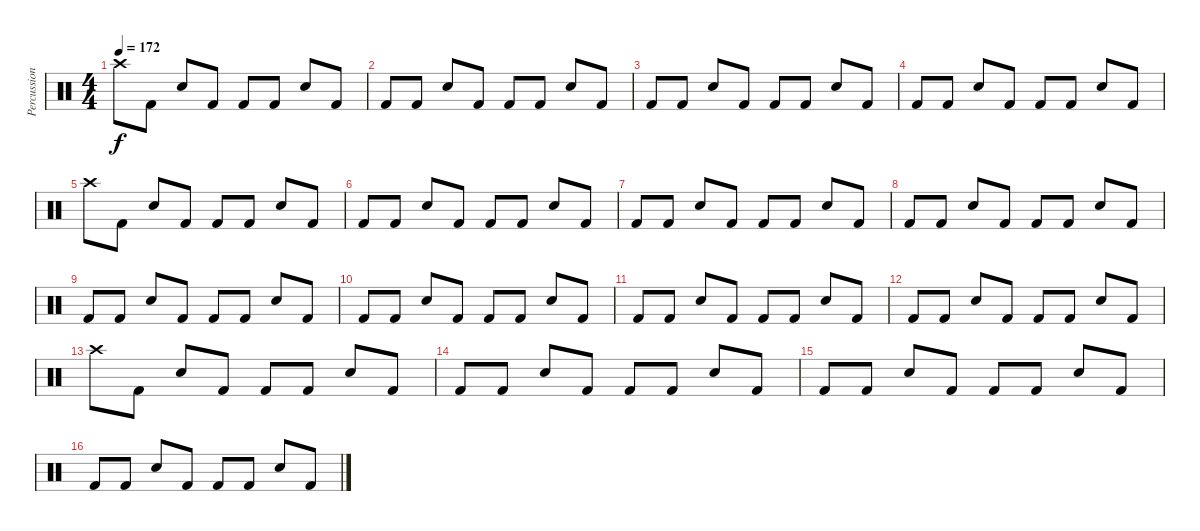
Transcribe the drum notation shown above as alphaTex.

\track ("Percussion" "Percussion") {instrument percussion}
\staff {score}
\articulation defaults
\ts (4 4)
\tempo 172
\clef neutral
\ks c "Crash high (hit)".8{dy f} "Kick (hit) 2".8 "Snare (hit) 2".8 "Kick (hit) 2".8 "Kick (hit) 2".8 "Kick (hit) 2".8 "Snare (hit) 2".8 "Kick (hit) 2".8
|
"Kick (hit) 2".8 "Kick (hit) 2".8 "Snare (hit) 2".8 "Kick (hit) 2".8 "Kick (hit) 2".8 "Kick (hit) 2".8 "Snare (hit) 2".8 "Kick (hit) 2".8 |
"Kick (hit) 2".8 "Kick (hit) 2".8 "Snare (hit) 2".8 "Kick (hit) 2".8 "Kick (hit) 2".8 "Kick (hit) 2".8 "Snare (hit) 2".8 "Kick (hit) 2".8 |
"Kick (hit) 2".8 "Kick (hit) 2".8 "Snare (hit) 2".8 "Kick (hit) 2".8 "Kick (hit) 2".8 "Kick (hit) 2".8 "Snare (hit) 2".8 "Kick (hit) 2".8 |
"Crash high (hit)".8 "Kick (hit) 2".8 "Snare (hit) 2".8 "Kick (hit) 2".8 "Kick (hit) 2".8 "Kick (hit) 2".8 "Snare (hit) 2".8 "Kick (hit) 2".8 |
"Kick (hit) 2".8 "Kick (hit) 2".8 "Snare (hit) 2".8 "Kick (hit) 2".8 "Kick (hit) 2".8 "Kick (hit) 2".8 "Snare (hit) 2".8 "Kick (hit) 2".8 |
"Kick (hit) 2".8 "Kick (hit) 2".8 "Snare (hit) 2".8 "Kick (hit) 2".8 "Kick (hit) 2".8 "Kick (hit) 2".8 "Snare (hit) 2".8 "Kick (hit) 2".8 |
"Kick (hit) 2".8 "Kick (hit) 2".8 "Snare (hit) 2".8 "Kick (hit) 2".8 "Kick (hit) 2".8 "Kick (hit) 2".8 "Snare (hit) 2".8 "Kick (hit) 2".8 |
"Kick (hit) 2".8 "Kick (hit) 2".8 "Snare (hit) 2".8 "Kick (hit) 2".8 "Kick (hit) 2".8 "Kick (hit) 2".8 "Snare (hit) 2".8 "Kick (hit) 2".8 |
"Kick (hit) 2".8 "Kick (hit) 2".8 "Snare (hit) 2".8 "Kick (hit) 2".8 "Kick (hit) 2".8 "Kick (hit) 2".8 "Snare (hit) 2".8 "Kick (hit) 2".8 |
"Kick (hit) 2".8 "Kick (hit) 2".8 "Snare (hit) 2".8 "Kick (hit) 2".8 "Kick (hit) 2".8 "Kick (hit) 2".8 "Snare (hit) 2".8 "Kick (hit) 2".8 |
"Kick (hit) 2".8 "Kick (hit) 2".8 "Snare (hit) 2".8 "Kick (hit) 2".8 "Kick (hit) 2".8 "Kick (hit) 2".8 "Snare (hit) 2".8 "Kick (hit) 2".8 |
"Crash high (hit)".8 "Kick (hit) 2".8 "Snare (hit) 2".8 "Kick (hit) 2".8 "Kick (hit) 2".8 "Kick (hit) 2".8 "Snare (hit) 2".8 "Kick (hit) 2".8 |
"Kick (hit) 2".8 "Kick (hit) 2".8 "Snare (hit) 2".8 "Kick (hit) 2".8 "Kick (hit) 2".8 "Kick (hit) 2".8 "Snare (hit) 2".8 "Kick (hit) 2".8 |
"Kick (hit) 2".8 "Kick (hit) 2".8 "Snare (hit) 2".8 "Kick (hit) 2".8 "Kick (hit) 2".8 "Kick (hit) 2".8 "Snare (hit) 2".8 "Kick (hit) 2".8 |
"Kick (hit) 2".8 "Kick (hit) 2".8 "Snare (hit) 2".8 "Kick (hit) 2".8 "Kick (hit) 2".8 "Kick (hit) 2".8 "Snare (hit) 2".8 "Kick (hit) 2".8
